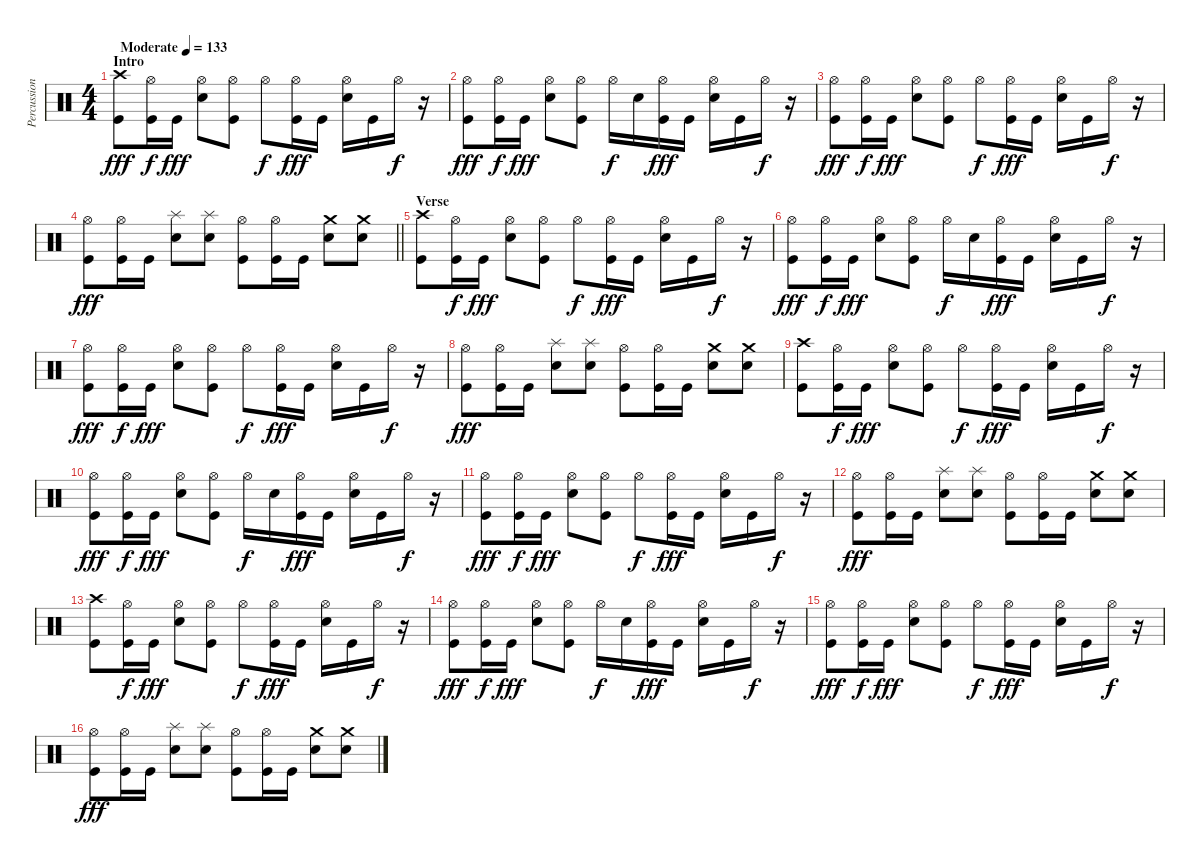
\track ("Percussion/Nicko McBrain" "Percussion") {instrument percussion}
\staff {score}
\articulation defaults
\ts (4 4)
\section ("" "Intro")
\tempo (133 "Moderate")
\clef neutral
\ks c
("Crash high (hit)" "Kick (hit)").8{dy fff} ("Hi-Hat (open)" "Kick (hit)").16{dy f} "Kick (hit)".16{dy fff} ("Hi-Hat (open)" "Electric Snare (hit)").8 ("Hi-Hat (open)" "Kick (hit)").8 "Hi-Hat (open)".8{dy f} ("Hi-Hat (open)" "Kick (hit)").16{dy fff} "Kick (hit)".16 ("Hi-Hat (open)" "Electric Snare (hit)").16 "Kick (hit)".16 "Hi-Hat (open)".16{dy f} r.16 |
("Hi-Hat (open)" "Kick (hit)").8{dy fff} ("Hi-Hat (open)" "Kick (hit)").16{dy f} "Kick (hit)".16{dy fff} ("Hi-Hat (open)" "Electric Snare (hit)").8 ("Hi-Hat (open)" "Kick (hit)").8 "Hi-Hat (open)".16{dy f} "Electric Snare (hit)".16 ("Hi-Hat (open)" "Kick (hit)").16{dy fff} "Kick (hit)".16 ("Hi-Hat (open)" "Electric Snare (hit)").16 "Kick (hit)".16 "Hi-Hat (open)".16{dy f} r.16 |
("Hi-Hat (open)" "Kick (hit)").8{dy fff} ("Hi-Hat (open)" "Kick (hit)").16{dy f} "Kick (hit)".16{dy fff} ("Hi-Hat (open)" "Electric Snare (hit)").8 ("Hi-Hat (open)" "Kick (hit)").8 "Hi-Hat (open)".8{dy f} ("Hi-Hat (open)" "Kick (hit)").16{dy fff} "Kick (hit)".16 ("Hi-Hat (open)" "Electric Snare (hit)").16 "Kick (hit)".16 "Hi-Hat (open)".16{dy f} r.16 |
\barLineRight lightlight
("Hi-Hat (open)" "Kick (hit)").8{dy fff} ("Hi-Hat (open)" "Kick (hit)").16 "Kick (hit)".16 ("Splash (hit)" "Electric Snare (hit)").8 ("Splash (hit)" "Electric Snare (hit)").8 ("Hi-Hat (open)" "Kick (hit)").8 ("Hi-Hat (open)" "Kick (hit)").16 "Kick (hit)".16 ("Crash medium (hit)" "Electric Snare (hit)").8 ("Crash medium (hit)" "Electric Snare (hit)").8 |
\section ("" "Verse")
("Crash high (hit)" "Kick (hit)").8 ("Hi-Hat (open)" "Kick (hit)").16{dy f} "Kick (hit)".16{dy fff} ("Hi-Hat (open)" "Electric Snare (hit)").8 ("Hi-Hat (open)" "Kick (hit)").8 "Hi-Hat (open)".8{dy f} ("Hi-Hat (open)" "Kick (hit)").16{dy fff} "Kick (hit)".16 ("Hi-Hat (open)" "Electric Snare (hit)").16 "Kick (hit)".16 "Hi-Hat (open)".16{dy f} r.16 |
("Hi-Hat (open)" "Kick (hit)").8{dy fff} ("Hi-Hat (open)" "Kick (hit)").16{dy f} "Kick (hit)".16{dy fff} ("Hi-Hat (open)" "Electric Snare (hit)").8 ("Hi-Hat (open)" "Kick (hit)").8 "Hi-Hat (open)".16{dy f} "Electric Snare (hit)".16 ("Hi-Hat (open)" "Kick (hit)").16{dy fff} "Kick (hit)".16 ("Hi-Hat (open)" "Electric Snare (hit)").16 "Kick (hit)".16 "Hi-Hat (open)".16{dy f} r.16 |
("Hi-Hat (open)" "Kick (hit)").8{dy fff} ("Hi-Hat (open)" "Kick (hit)").16{dy f} "Kick (hit)".16{dy fff} ("Hi-Hat (open)" "Electric Snare (hit)").8 ("Hi-Hat (open)" "Kick (hit)").8 "Hi-Hat (open)".8{dy f} ("Hi-Hat (open)" "Kick (hit)").16{dy fff} "Kick (hit)".16 ("Hi-Hat (open)" "Electric Snare (hit)").16 "Kick (hit)".16 "Hi-Hat (open)".16{dy f} r.16 |
("Hi-Hat (open)" "Kick (hit)").8{dy fff} ("Hi-Hat (open)" "Kick (hit)").16 "Kick (hit)".16 ("Splash (hit)" "Electric Snare (hit)").8 ("Splash (hit)" "Electric Snare (hit)").8 ("Hi-Hat (open)" "Kick (hit)").8 ("Hi-Hat (open)" "Kick (hit)").16 "Kick (hit)".16 ("Crash medium (hit)" "Electric Snare (hit)").8 ("Crash medium (hit)" "Electric Snare (hit)").8 |
("Crash high (hit)" "Kick (hit)").8 ("Hi-Hat (open)" "Kick (hit)").16{dy f} "Kick (hit)".16{dy fff} ("Hi-Hat (open)" "Electric Snare (hit)").8 ("Hi-Hat (open)" "Kick (hit)").8 "Hi-Hat (open)".8{dy f} ("Hi-Hat (open)" "Kick (hit)").16{dy fff} "Kick (hit)".16 ("Hi-Hat (open)" "Electric Snare (hit)").16 "Kick (hit)".16 "Hi-Hat (open)".16{dy f} r.16 |
("Hi-Hat (open)" "Kick (hit)").8{dy fff} ("Hi-Hat (open)" "Kick (hit)").16{dy f} "Kick (hit)".16{dy fff} ("Hi-Hat (open)" "Electric Snare (hit)").8 ("Hi-Hat (open)" "Kick (hit)").8 "Hi-Hat (open)".16{dy f} "Electric Snare (hit)".16 ("Hi-Hat (open)" "Kick (hit)").16{dy fff} "Kick (hit)".16 ("Hi-Hat (open)" "Electric Snare (hit)").16 "Kick (hit)".16 "Hi-Hat (open)".16{dy f} r.16 |
("Hi-Hat (open)" "Kick (hit)").8{dy fff} ("Hi-Hat (open)" "Kick (hit)").16{dy f} "Kick (hit)".16{dy fff} ("Hi-Hat (open)" "Electric Snare (hit)").8 ("Hi-Hat (open)" "Kick (hit)").8 "Hi-Hat (open)".8{dy f} ("Hi-Hat (open)" "Kick (hit)").16{dy fff} "Kick (hit)".16 ("Hi-Hat (open)" "Electric Snare (hit)").16 "Kick (hit)".16 "Hi-Hat (open)".16{dy f} r.16 |
("Hi-Hat (open)" "Kick (hit)").8{dy fff} ("Hi-Hat (open)" "Kick (hit)").16 "Kick (hit)".16 ("Splash (hit)" "Electric Snare (hit)").8 ("Splash (hit)" "Electric Snare (hit)").8 ("Hi-Hat (open)" "Kick (hit)").8 ("Hi-Hat (open)" "Kick (hit)").16 "Kick (hit)".16 ("Crash medium (hit)" "Electric Snare (hit)").8 ("Crash medium (hit)" "Electric Snare (hit)").8 |
("Crash high (hit)" "Kick (hit)").8 ("Hi-Hat (open)" "Kick (hit)").16{dy f} "Kick (hit)".16{dy fff} ("Hi-Hat (open)" "Electric Snare (hit)").8 ("Hi-Hat (open)" "Kick (hit)").8 "Hi-Hat (open)".8{dy f} ("Hi-Hat (open)" "Kick (hit)").16{dy fff} "Kick (hit)".16 ("Hi-Hat (open)" "Electric Snare (hit)").16 "Kick (hit)".16 "Hi-Hat (open)".16{dy f} r.16 |
("Hi-Hat (open)" "Kick (hit)").8{dy fff} ("Hi-Hat (open)" "Kick (hit)").16{dy f} "Kick (hit)".16{dy fff} ("Hi-Hat (open)" "Electric Snare (hit)").8 ("Hi-Hat (open)" "Kick (hit)").8 "Hi-Hat (open)".16{dy f} "Electric Snare (hit)".16 ("Hi-Hat (open)" "Kick (hit)").16{dy fff} "Kick (hit)".16 ("Hi-Hat (open)" "Electric Snare (hit)").16 "Kick (hit)".16 "Hi-Hat (open)".16{dy f} r.16 |
("Hi-Hat (open)" "Kick (hit)").8{dy fff} ("Hi-Hat (open)" "Kick (hit)").16{dy f} "Kick (hit)".16{dy fff} ("Hi-Hat (open)" "Electric Snare (hit)").8 ("Hi-Hat (open)" "Kick (hit)").8 "Hi-Hat (open)".8{dy f} ("Hi-Hat (open)" "Kick (hit)").16{dy fff} "Kick (hit)".16 ("Hi-Hat (open)" "Electric Snare (hit)").16 "Kick (hit)".16 "Hi-Hat (open)".16{dy f} r.16 |
("Hi-Hat (open)" "Kick (hit)").8{dy fff} ("Hi-Hat (open)" "Kick (hit)").16 "Kick (hit)".16 ("Splash (hit)" "Electric Snare (hit)").8 ("Splash (hit)" "Electric Snare (hit)").8 ("Hi-Hat (open)" "Kick (hit)").8 ("Hi-Hat (open)" "Kick (hit)").16 "Kick (hit)".16 ("Crash medium (hit)" "Electric Snare (hit)").8 ("Crash medium (hit)" "Electric Snare (hit)").8
